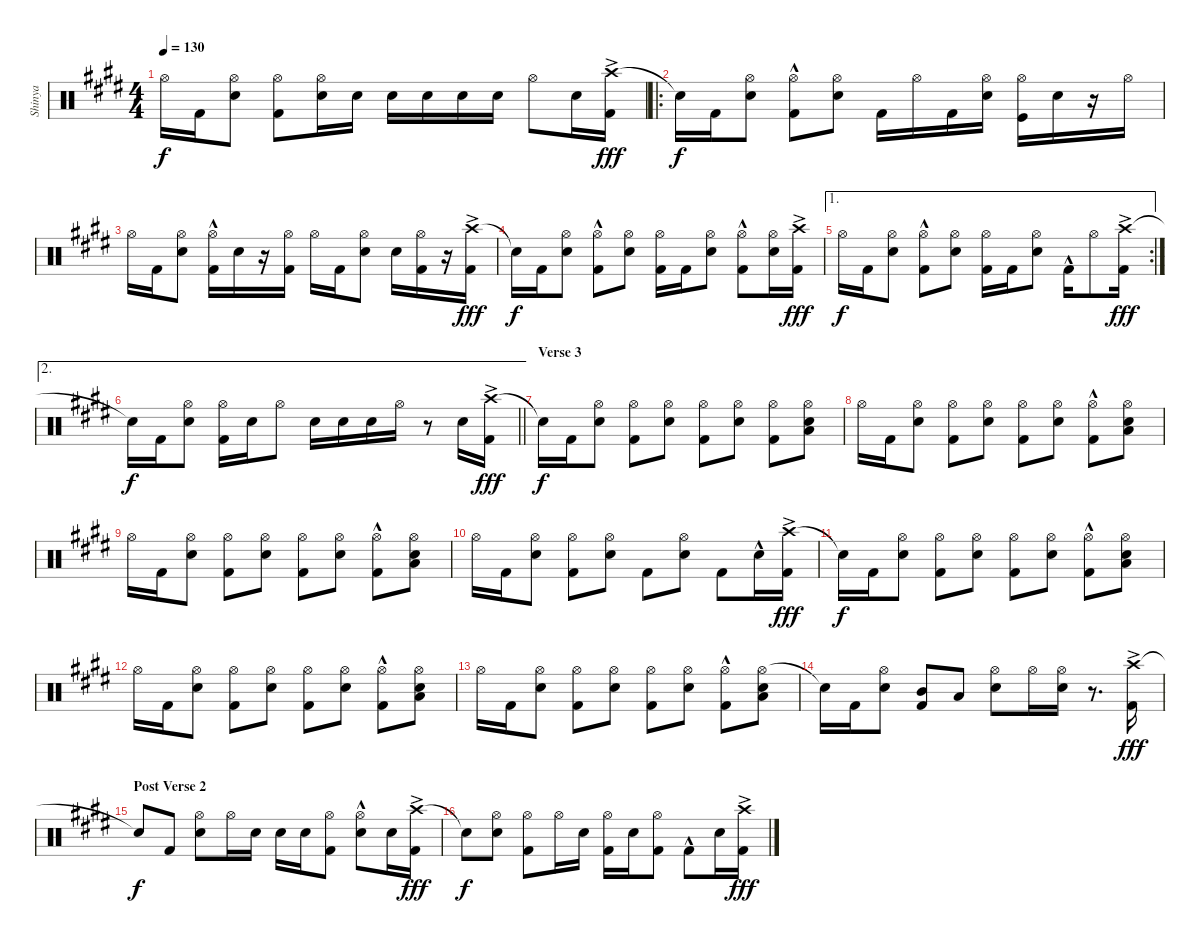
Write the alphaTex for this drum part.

\track ("Shinya" "Shinya") {instrument percussion}
\staff {score}
\articulation defaults
\ts (4 4)
\tempo 130
\clef neutral
\ks e "Hi-Hat (open)".16{dy f} "Kick (hit) 2".16
("Hi-Hat (open)" "Snare (hit) 2").8 ("Hi-Hat (open)" "Kick (hit) 2").8 ("Hi-Hat (open)" "Snare (hit) 2").16 "Snare (hit) 2".16 "Snare (hit) 2".16 "Snare (hit) 2".16 "Snare (hit) 2".16 "Snare (hit) 2".16 "Hi-Hat (open)".8 "Snare (hit) 2".16 ("Crash high (hit)"{ac} "Kick (hit) 2").16{dy fff} |
\ro "Snare (hit)"{t}.16{dy f} "Kick (hit) 2".16
("Hi-Hat (open)" "Snare (hit) 2").8 ("Hi-Hat (open)" "Kick (hit) 2"{hac}).8 ("Hi-Hat (open)" "Snare (hit) 2").8 "Kick (hit) 2".16 "Hi-Hat (open)".16 "Kick (hit) 2".16 ("Hi-Hat (open)" "Snare (hit) 2").16 ("Hi-Hat (open)" "Kick (hit)").16 "Snare (hit) 2".16 r.16 "Hi-Hat (open)".16 |
"Hi-Hat (open)".16 "Kick (hit) 2".16 ("Hi-Hat (open)" "Snare (hit) 2").8 ("Hi-Hat (open)" "Kick (hit) 2"{hac}).16 "Snare (hit) 2".16 r.16 ("Hi-Hat (open)" "Kick (hit) 2").16 "Hi-Hat (open)".16 "Kick (hit) 2".16 ("Hi-Hat (open)" "Snare (hit) 2").8 "Snare (hit) 2".16 ("Hi-Hat (open)" "Kick (hit) 2").16 r.16 ("Crash high (hit)"{ac} "Kick (hit) 2").16{dy fff} |
"Snare (hit)"{t}.16{dy f} "Kick (hit) 2".16 ("Hi-Hat (open)" "Snare (hit) 2").8 ("Hi-Hat (open)" "Kick (hit) 2"{hac}).8 ("Hi-Hat (open)" "Snare (hit) 2").8 ("Hi-Hat (open)" "Kick (hit) 2").16 "Kick (hit) 2".16 ("Hi-Hat (open)" "Snare (hit) 2").8 ("Hi-Hat (open)" "Kick (hit) 2"{hac}).8 ("Hi-Hat (open)" "Snare (hit) 2").16 ("Crash high (hit)"{ac} "Kick (hit) 2").16{dy fff} |
\ae 1
\rc 2 "Hi-Hat (open)".16{dy f} "Kick (hit) 2".16
("Hi-Hat (open)" "Snare (hit) 2").8 ("Hi-Hat (open)" "Kick (hit) 2"{hac}).8 ("Hi-Hat (open)" "Snare (hit) 2").8 ("Hi-Hat (open)" "Kick (hit) 2").16 "Kick (hit) 2".16 ("Hi-Hat (open)" "Snare (hit) 2").8 "Kick (hit) 2"{hac}.16 "Hi-Hat (open)".8 ("Crash high (hit)"{ac} "Kick (hit) 2").16{dy fff} |
\ae 2
\barLineRight lightlight "Snare (hit)"{t}.16{dy f} "Kick (hit) 2".16
("Hi-Hat (open)" "Snare (hit) 2").8 ("Hi-Hat (open)" "Kick (hit) 2").16 "Snare (hit) 2".16 "Hi-Hat (open)".8 "Snare (hit) 2".16 "Snare (hit) 2".16 "Snare (hit) 2".16 "Hi-Hat (open)".16 r.8 "Snare (hit) 2".16 ("Crash high (hit)"{ac} "Kick (hit) 2").16{dy fff} |
\section ("" "Verse 3")
"Snare (hit)"{t}.16{dy f} "Kick (hit) 2".16 ("Hi-Hat (open)" "Snare (hit) 2").8 ("Hi-Hat (open)" "Kick (hit) 2").8 ("Hi-Hat (open)" "Snare (hit) 2").8 ("Hi-Hat (open)" "Kick (hit) 2").8 ("Hi-Hat (open)" "Snare (hit) 2").8 ("Hi-Hat (open)" "Kick (hit) 2").8 ("Hi-Hat (open)" "Low Floor Tom (hit)" "Snare (hit) 2").8 |
"Hi-Hat (open)".16 "Kick (hit) 2".16 ("Hi-Hat (open)" "Snare (hit) 2").8 ("Hi-Hat (open)" "Kick (hit) 2").8 ("Hi-Hat (open)" "Snare (hit) 2").8 ("Hi-Hat (open)" "Kick (hit) 2").8 ("Hi-Hat (open)" "Snare (hit) 2").8 ("Hi-Hat (open)" "Kick (hit) 2"{hac}).8 ("Hi-Hat (open)" "Low Floor Tom (hit)" "Snare (hit) 2").8 |
"Hi-Hat (open)".16 "Kick (hit) 2".16 ("Hi-Hat (open)" "Snare (hit) 2").8 ("Hi-Hat (open)" "Kick (hit) 2").8 ("Hi-Hat (open)" "Snare (hit) 2").8 ("Hi-Hat (open)" "Kick (hit) 2").8 ("Hi-Hat (open)" "Snare (hit) 2").8 ("Hi-Hat (open)" "Kick (hit) 2"{hac}).8 ("Hi-Hat (open)" "Low Floor Tom (hit)" "Snare (hit) 2").8 |
"Hi-Hat (open)".16 "Kick (hit) 2".16 ("Hi-Hat (open)" "Snare (hit) 2").8 ("Hi-Hat (open)" "Kick (hit) 2").8 ("Hi-Hat (open)" "Snare (hit) 2").8 "Kick (hit) 2".8 ("Hi-Hat (open)" "Snare (hit) 2").8 "Kick (hit) 2".8 "Snare (hit) 2"{hac}.16 ("Crash high (hit)"{ac} "Kick (hit) 2").16{dy fff} |
"Snare (hit)"{t}.16{dy f} "Kick (hit) 2".16 ("Hi-Hat (open)" "Snare (hit) 2").8 ("Hi-Hat (open)" "Kick (hit) 2").8 ("Hi-Hat (open)" "Snare (hit) 2").8 ("Hi-Hat (open)" "Kick (hit) 2").8 ("Hi-Hat (open)" "Snare (hit) 2").8 ("Hi-Hat (open)" "Kick (hit) 2"{hac}).8 ("Hi-Hat (open)" "Low Floor Tom (hit)" "Snare (hit) 2").8 |
"Hi-Hat (open)".16 "Kick (hit) 2".16 ("Hi-Hat (open)" "Snare (hit) 2").8 ("Hi-Hat (open)" "Kick (hit) 2").8 ("Hi-Hat (open)" "Snare (hit) 2").8 ("Hi-Hat (open)" "Kick (hit) 2").8 ("Hi-Hat (open)" "Snare (hit) 2").8 ("Hi-Hat (open)" "Kick (hit) 2"{hac}).8 ("Hi-Hat (open)" "Low Floor Tom (hit)" "Snare (hit) 2").8 |
"Hi-Hat (open)".16 "Kick (hit) 2".16 ("Hi-Hat (open)" "Snare (hit) 2").8 ("Hi-Hat (open)" "Kick (hit) 2").8 ("Hi-Hat (open)" "Snare (hit) 2").8 ("Hi-Hat (open)" "Kick (hit) 2").8 ("Hi-Hat (open)" "Snare (hit) 2").8 ("Hi-Hat (open)" "Kick (hit) 2"{hac}).8 ("Hi-Hat (open)" "Low Floor Tom (hit)" "Snare (hit) 2").8 |
"Snare (hit)"{t}.16 "Kick (hit) 2".16 ("Hi-Hat (open)" "Snare (hit) 2").8 ("Kick (hit) 2" "Mid Tom (hit)").8 "Low Tom (hit)".8 ("Hi-Hat (open)" "Snare (hit) 2").8 "Hi-Hat (open)".16 ("Hi-Hat (open)" "Snare (hit) 2").16 r.8{d} ("Crash high (hit)"{ac} "Kick (hit) 2").16{dy fff} |
\section ("" "Post Verse 2")
"Snare (hit)"{t}.8{dy f} "Kick (hit) 2".8 ("Hi-Hat (open)" "Snare (hit) 2").8 "Hi-Hat (open)".16 "Snare (hit) 2".16 "Snare (hit) 2".16 "Snare (hit) 2".16 ("Hi-Hat (open)" "Kick (hit) 2").8 ("Hi-Hat (open)" "Snare (hit) 2"{hac}).8 "Snare (hit) 2".16 ("Crash high (hit)"{ac} "Kick (hit) 2").16{dy fff} |
"Snare (hit)"{t}.8{dy f} ("Hi-Hat (open)" "Snare (hit) 2").8 ("Hi-Hat (open)" "Kick (hit) 2").8 "Hi-Hat (open)".16 "Snare (hit) 2".16 ("Hi-Hat (open)" "Kick (hit) 2").16 "Snare (hit) 2".16 ("Hi-Hat (open)" "Kick (hit) 2").8 "Kick (hit) 2"{hac}.8 "Snare (hit) 2".16 ("Crash high (hit)"{ac} "Kick (hit) 2").16{dy fff}
